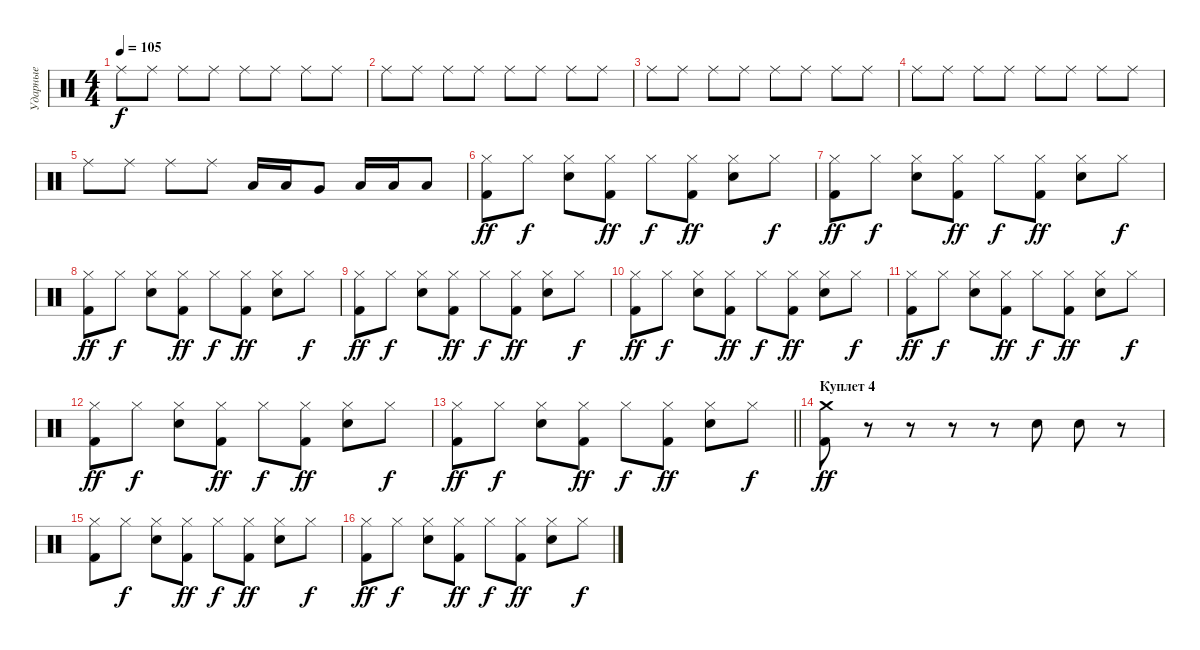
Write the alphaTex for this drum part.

\track ("Ударные" "Ударные") {solo instrument percussion}
\staff {score}
\articulation defaults
\ts (4 4)
\tempo 105
\clef neutral
\ks c "Ride (middle)".8{dy f} "Ride (middle)".8 "Ride (middle)".8 "Ride (middle)".8 "Ride (middle)".8 "Ride (middle)".8 "Ride (middle)".8 "Ride (middle)".8
|
"Ride (middle)".8 "Ride (middle)".8 "Ride (middle)".8 "Ride (middle)".8 "Ride (middle)".8 "Ride (middle)".8 "Ride (middle)".8 "Ride (middle)".8 |
"Ride (middle)".8 "Ride (middle)".8 "Ride (middle)".8 "Ride (middle)".8 "Ride (middle)".8 "Ride (middle)".8 "Ride (middle)".8 "Ride (middle)".8 |
"Ride (middle)".8 "Ride (middle)".8 "Ride (middle)".8 "Ride (middle)".8 "Ride (middle)".8 "Ride (middle)".8 "Ride (middle)".8 "Ride (middle)".8 |
"Ride (middle)".8 "Ride (middle)".8 "Ride (middle)".8 "Ride (middle)".8 "Low Tom (hit)".16 "Low Tom (hit)".16 "Very Low Tom (hit)".8 "Low Tom (hit)".16 "Low Tom (hit)".16 "Low Floor Tom (hit)".8 |
("Kick (hit) 2" "Hi-Hat (closed)").8{dy ff} "Hi-Hat (closed)".8{dy f} ("Snare (hit) 2" "Hi-Hat (closed)").8 ("Kick (hit) 2" "Hi-Hat (closed)").8{dy ff} "Hi-Hat (closed)".8{dy f} ("Kick (hit) 2" "Hi-Hat (closed)").8{dy ff} ("Snare (hit) 2" "Hi-Hat (closed)").8 "Hi-Hat (closed)".8{dy f} |
("Kick (hit) 2" "Hi-Hat (closed)").8{dy ff} "Hi-Hat (closed)".8{dy f} ("Snare (hit) 2" "Hi-Hat (closed)").8 ("Kick (hit) 2" "Hi-Hat (closed)").8{dy ff} "Hi-Hat (closed)".8{dy f} ("Kick (hit) 2" "Hi-Hat (closed)").8{dy ff} ("Snare (hit) 2" "Hi-Hat (closed)").8 "Hi-Hat (closed)".8{dy f} |
("Kick (hit) 2" "Hi-Hat (closed)").8{dy ff} "Hi-Hat (closed)".8{dy f} ("Snare (hit) 2" "Hi-Hat (closed)").8 ("Kick (hit) 2" "Hi-Hat (closed)").8{dy ff} "Hi-Hat (closed)".8{dy f} ("Kick (hit) 2" "Hi-Hat (closed)").8{dy ff} ("Snare (hit) 2" "Hi-Hat (closed)").8 "Hi-Hat (closed)".8{dy f} |
("Kick (hit) 2" "Hi-Hat (closed)").8{dy ff} "Hi-Hat (closed)".8{dy f} ("Snare (hit) 2" "Hi-Hat (closed)").8 ("Kick (hit) 2" "Hi-Hat (closed)").8{dy ff} "Hi-Hat (closed)".8{dy f} ("Kick (hit) 2" "Hi-Hat (closed)").8{dy ff} ("Snare (hit) 2" "Hi-Hat (closed)").8 "Hi-Hat (closed)".8{dy f} |
("Kick (hit) 2" "Hi-Hat (closed)").8{dy ff} "Hi-Hat (closed)".8{dy f} ("Snare (hit) 2" "Hi-Hat (closed)").8 ("Kick (hit) 2" "Hi-Hat (closed)").8{dy ff} "Hi-Hat (closed)".8{dy f} ("Kick (hit) 2" "Hi-Hat (closed)").8{dy ff} ("Snare (hit) 2" "Hi-Hat (closed)").8 "Hi-Hat (closed)".8{dy f} |
("Kick (hit) 2" "Hi-Hat (closed)").8{dy ff} "Hi-Hat (closed)".8{dy f} ("Snare (hit) 2" "Hi-Hat (closed)").8 ("Kick (hit) 2" "Hi-Hat (closed)").8{dy ff} "Hi-Hat (closed)".8{dy f} ("Kick (hit) 2" "Hi-Hat (closed)").8{dy ff} ("Snare (hit) 2" "Hi-Hat (closed)").8 "Hi-Hat (closed)".8{dy f} |
("Kick (hit) 2" "Hi-Hat (closed)").8{dy ff} "Hi-Hat (closed)".8{dy f} ("Snare (hit) 2" "Hi-Hat (closed)").8 ("Kick (hit) 2" "Hi-Hat (closed)").8{dy ff} "Hi-Hat (closed)".8{dy f} ("Kick (hit) 2" "Hi-Hat (closed)").8{dy ff} ("Snare (hit) 2" "Hi-Hat (closed)").8 "Hi-Hat (closed)".8{dy f} |
\barLineRight lightlight
("Kick (hit) 2" "Hi-Hat (closed)").8{dy ff} "Hi-Hat (closed)".8{dy f} ("Snare (hit) 2" "Hi-Hat (closed)").8 ("Kick (hit) 2" "Hi-Hat (closed)").8{dy ff} "Hi-Hat (closed)".8{dy f} ("Kick (hit) 2" "Hi-Hat (closed)").8{dy ff} ("Snare (hit) 2" "Hi-Hat (closed)").8 "Hi-Hat (closed)".8{dy f} |
\section ("" "Куплет 4")
("Kick (hit) 2" "Crash medium (hit)").8{dy ff} r.8 r.8 r.8 r.8 "Snare (hit) 2".8 "Snare (hit) 2".8 r.8 |
("Kick (hit) 2" "Hi-Hat (closed)").8 "Hi-Hat (closed)".8{dy f} ("Snare (hit) 2" "Hi-Hat (closed)").8 ("Kick (hit) 2" "Hi-Hat (closed)").8{dy ff} "Hi-Hat (closed)".8{dy f} ("Kick (hit) 2" "Hi-Hat (closed)").8{dy ff} ("Snare (hit) 2" "Hi-Hat (closed)").8 "Hi-Hat (closed)".8{dy f} |
("Kick (hit) 2" "Hi-Hat (closed)").8{dy ff} "Hi-Hat (closed)".8{dy f} ("Snare (hit) 2" "Hi-Hat (closed)").8 ("Kick (hit) 2" "Hi-Hat (closed)").8{dy ff} "Hi-Hat (closed)".8{dy f} ("Kick (hit) 2" "Hi-Hat (closed)").8{dy ff} ("Snare (hit) 2" "Hi-Hat (closed)").8 "Hi-Hat (closed)".8{dy f}
